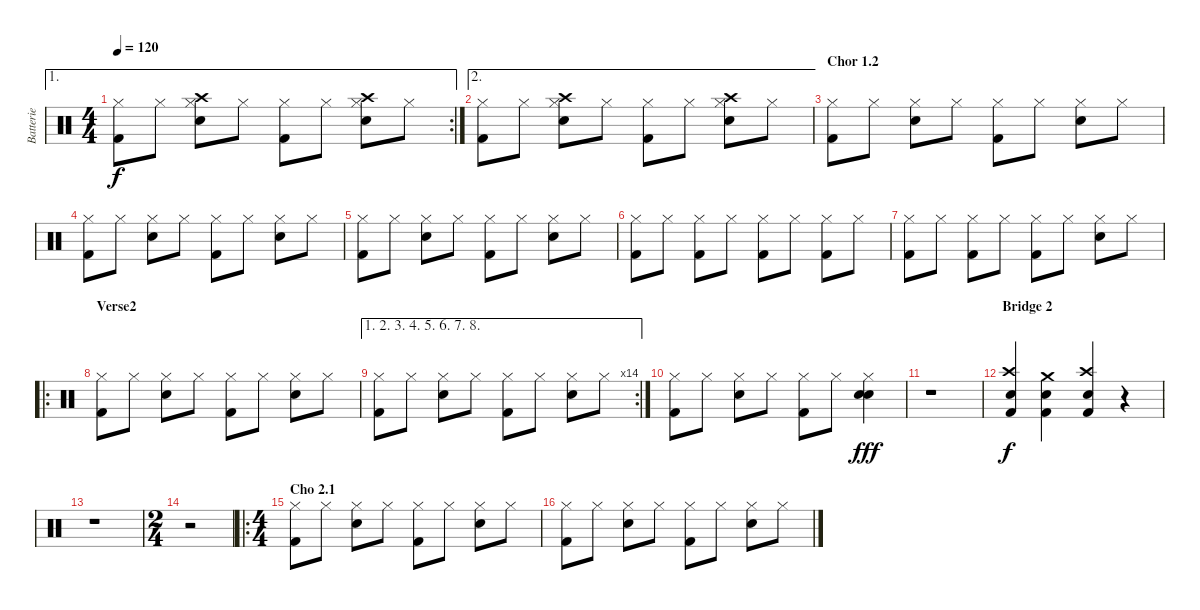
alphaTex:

\track ("Batterie" "Batterie") {instrument percussion}
\staff {score}
\articulation defaults
\ae 1
\rc 2
\ts (4 4)
\tempo 120
\clef neutral
\ks c
("Hi-Hat (closed)" "Kick (hit) 2").8{dy f} "Hi-Hat (closed)".8 ("Hi-Hat (closed)" "Crash high (hit)" "Electric Snare (hit)").8 "Hi-Hat (closed)".8 ("Hi-Hat (closed)" "Kick (hit) 2").8 "Hi-Hat (closed)".8 ("Hi-Hat (closed)" "Crash high (hit)" "Electric Snare (hit)").8 "Hi-Hat (closed)".8 |
\ae 2
("Hi-Hat (closed)" "Kick (hit) 2").8 "Hi-Hat (closed)".8 ("Hi-Hat (closed)" "Crash high (hit)" "Electric Snare (hit)").8 "Hi-Hat (closed)".8 ("Hi-Hat (closed)" "Kick (hit) 2").8 "Hi-Hat (closed)".8 ("Hi-Hat (closed)" "Crash high (hit)" "Electric Snare (hit)").8 "Hi-Hat (closed)".8 |
\section ("" "Chor 1.2")
("Hi-Hat (closed)" "Kick (hit) 2").8 "Hi-Hat (closed)".8 ("Hi-Hat (closed)" "Electric Snare (hit)").8 "Hi-Hat (closed)".8 ("Hi-Hat (closed)" "Kick (hit) 2").8 "Hi-Hat (closed)".8 ("Hi-Hat (closed)" "Electric Snare (hit)").8 "Hi-Hat (closed)".8 |
("Hi-Hat (closed)" "Kick (hit) 2").8 "Hi-Hat (closed)".8 ("Hi-Hat (closed)" "Electric Snare (hit)").8 "Hi-Hat (closed)".8 ("Hi-Hat (closed)" "Kick (hit) 2").8 "Hi-Hat (closed)".8 ("Hi-Hat (closed)" "Electric Snare (hit)").8 "Hi-Hat (closed)".8 |
("Hi-Hat (closed)" "Kick (hit) 2").8 "Hi-Hat (closed)".8 ("Hi-Hat (closed)" "Electric Snare (hit)").8 "Hi-Hat (closed)".8 ("Hi-Hat (closed)" "Kick (hit) 2").8 "Hi-Hat (closed)".8 ("Hi-Hat (closed)" "Electric Snare (hit)").8 "Hi-Hat (closed)".8 |
("Hi-Hat (closed)" "Kick (hit) 2").8 "Hi-Hat (closed)".8 ("Hi-Hat (closed)" "Kick (hit) 2").8 "Hi-Hat (closed)".8 ("Hi-Hat (closed)" "Kick (hit) 2").8 "Hi-Hat (closed)".8 ("Hi-Hat (closed)" "Kick (hit) 2").8 "Hi-Hat (closed)".8 |
("Hi-Hat (closed)" "Kick (hit) 2").8 "Hi-Hat (closed)".8 ("Hi-Hat (closed)" "Kick (hit) 2").8 "Hi-Hat (closed)".8 ("Hi-Hat (closed)" "Kick (hit) 2").8 "Hi-Hat (closed)".8 ("Hi-Hat (closed)" "Electric Snare (hit)").8 "Hi-Hat (closed)".8 |
\ro
\section ("" "Verse2")
("Hi-Hat (closed)" "Kick (hit) 2").8 "Hi-Hat (closed)".8 ("Hi-Hat (closed)" "Electric Snare (hit)").8 "Hi-Hat (closed)".8 ("Hi-Hat (closed)" "Kick (hit) 2").8 "Hi-Hat (closed)".8 ("Hi-Hat (closed)" "Electric Snare (hit)").8 "Hi-Hat (closed)".8 |
\ae (1 2 3 4 5 6 7 8)
\rc 14
("Hi-Hat (closed)" "Kick (hit) 2").8 "Hi-Hat (closed)".8 ("Hi-Hat (closed)" "Electric Snare (hit)").8 "Hi-Hat (closed)".8 ("Hi-Hat (closed)" "Kick (hit) 2").8 "Hi-Hat (closed)".8 ("Hi-Hat (closed)" "Electric Snare (hit)").8 "Hi-Hat (closed)".8 |
("Hi-Hat (closed)" "Kick (hit) 2").8 "Hi-Hat (closed)".8 ("Hi-Hat (closed)" "Electric Snare (hit)").8 "Hi-Hat (closed)".8 ("Hi-Hat (closed)" "Kick (hit) 2").8 "Hi-Hat (closed)".8 ("Hi-Hat (closed)" "Electric Snare (hit)" "Electric Snare (hit)").4{dy fff volume 16} |
r.1 |
\section ("" "Bridge 2")
("Crash high (hit)" "Electric Snare (hit)" "Kick (hit) 2").4{dy f volume 13} ("Crash medium (hit)" "Electric Snare (hit)" "Kick (hit) 2").4 ("Crash high (hit)" "Electric Snare (hit)" "Kick (hit) 2").4 r.4 |
r.1 |
\ts (2 4)
r.2 |
\ro
\ts (4 4)
\section ("" "Cho 2.1")
("Hi-Hat (closed)" "Kick (hit) 2").8 "Hi-Hat (closed)".8 ("Hi-Hat (closed)" "Electric Snare (hit)").8 "Hi-Hat (closed)".8 ("Hi-Hat (closed)" "Kick (hit) 2").8 "Hi-Hat (closed)".8 ("Hi-Hat (closed)" "Electric Snare (hit)").8 "Hi-Hat (closed)".8 |
("Hi-Hat (closed)" "Kick (hit) 2").8 "Hi-Hat (closed)".8 ("Hi-Hat (closed)" "Electric Snare (hit)").8 "Hi-Hat (closed)".8 ("Hi-Hat (closed)" "Kick (hit) 2").8 "Hi-Hat (closed)".8 ("Hi-Hat (closed)" "Electric Snare (hit)").8 "Hi-Hat (closed)".8
